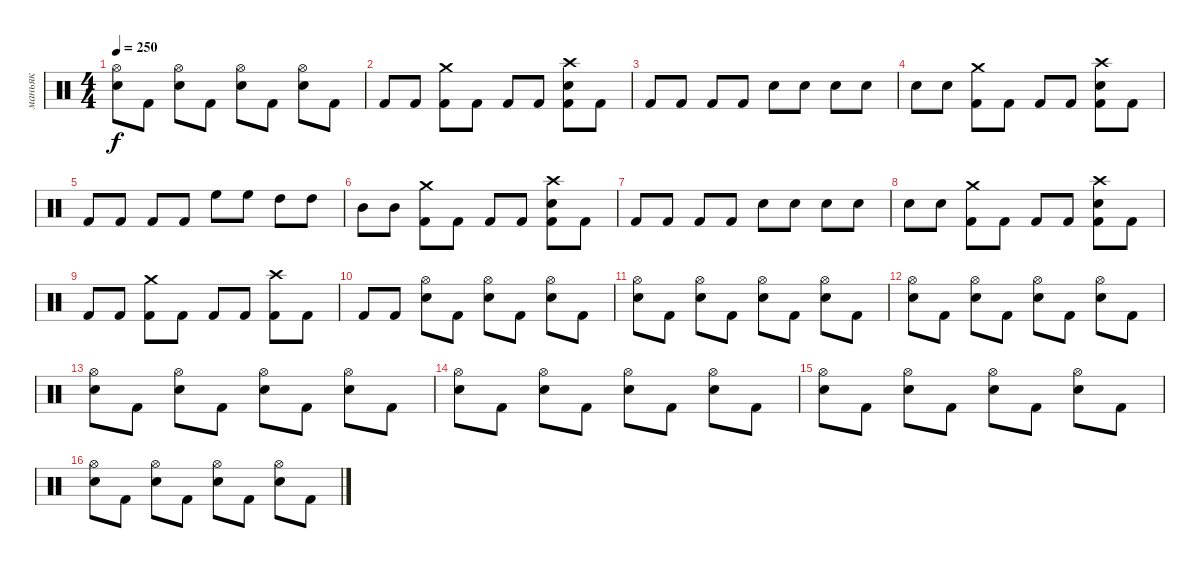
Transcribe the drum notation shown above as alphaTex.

\track ("маньяк" "маньяк") {instrument percussion}
\staff {score}
\articulation defaults
\ts (4 4)
\tempo 250
\clef neutral
\ks c
("Electric Snare (hit)" "Hi-Hat (open)").8{dy f} "Kick (hit) 2".8 ("Electric Snare (hit)" "Hi-Hat (open)").8 "Kick (hit) 2".8 ("Electric Snare (hit)" "Hi-Hat (open)").8 "Kick (hit) 2".8 ("Electric Snare (hit)" "Hi-Hat (open)").8 "Kick (hit) 2".8 |
"Kick (hit) 2".8 "Kick (hit) 2".8 ("Crash medium (hit)" "Kick (hit) 2").8 "Kick (hit) 2".8 "Kick (hit) 2".8 "Kick (hit) 2".8 ("Crash high (hit)" "Electric Snare (hit)" "Kick (hit) 2").8 "Kick (hit) 2".8 |
"Kick (hit) 2".8 "Kick (hit) 2".8 "Kick (hit) 2".8 "Kick (hit) 2".8 "Electric Snare (hit)".8 "Electric Snare (hit)".8 "Electric Snare (hit)".8 "Electric Snare (hit)".8 |
"Electric Snare (hit)".8 "Electric Snare (hit)".8 ("Crash medium (hit)" "Kick (hit) 2").8 "Kick (hit) 2".8 "Kick (hit) 2".8 "Kick (hit) 2".8 ("Crash high (hit)" "Electric Snare (hit)" "Kick (hit) 2").8 "Kick (hit) 2".8 |
"Kick (hit) 2".8 "Kick (hit) 2".8 "Kick (hit) 2".8 "Kick (hit) 2".8 "High Floor Tom (hit)".8 "High Floor Tom (hit)".8 "High Tom (hit)".8 "High Tom (hit)".8 |
"Mid Tom (hit)".8 "Mid Tom (hit)".8 ("Crash medium (hit)" "Kick (hit) 2").8 "Kick (hit) 2".8 "Kick (hit) 2".8 "Kick (hit) 2".8 ("Crash high (hit)" "Electric Snare (hit)" "Kick (hit) 2").8 "Kick (hit) 2".8 |
"Kick (hit) 2".8 "Kick (hit) 2".8 "Kick (hit) 2".8 "Kick (hit) 2".8 "Electric Snare (hit)".8 "Electric Snare (hit)".8 "Electric Snare (hit)".8 "Electric Snare (hit)".8 |
"Electric Snare (hit)".8 "Electric Snare (hit)".8 ("Crash medium (hit)" "Kick (hit) 2").8 "Kick (hit) 2".8 "Kick (hit) 2".8 "Kick (hit) 2".8 ("Crash high (hit)" "Electric Snare (hit)" "Kick (hit) 2").8 "Kick (hit) 2".8 |
"Kick (hit) 2".8 "Kick (hit) 2".8 ("Crash medium (hit)" "Kick (hit) 2").8 "Kick (hit) 2".8 "Kick (hit) 2".8 "Kick (hit) 2".8 ("Crash high (hit)" "Kick (hit) 2").8 "Kick (hit) 2".8 |
"Kick (hit) 2".8 "Kick (hit) 2".8 ("Electric Snare (hit)" "Hi-Hat (open)").8 "Kick (hit) 2".8 ("Electric Snare (hit)" "Hi-Hat (open)").8 "Kick (hit) 2".8 ("Electric Snare (hit)" "Hi-Hat (open)").8 "Kick (hit) 2".8 |
("Electric Snare (hit)" "Hi-Hat (open)").8 "Kick (hit) 2".8 ("Electric Snare (hit)" "Hi-Hat (open)").8 "Kick (hit) 2".8 ("Electric Snare (hit)" "Hi-Hat (open)").8 "Kick (hit) 2".8 ("Electric Snare (hit)" "Hi-Hat (open)").8 "Kick (hit) 2".8 |
("Electric Snare (hit)" "Hi-Hat (open)").8 "Kick (hit) 2".8 ("Electric Snare (hit)" "Hi-Hat (open)").8 "Kick (hit) 2".8 ("Electric Snare (hit)" "Hi-Hat (open)").8 "Kick (hit) 2".8 ("Electric Snare (hit)" "Hi-Hat (open)").8 "Kick (hit) 2".8 |
("Electric Snare (hit)" "Hi-Hat (open)").8 "Kick (hit) 2".8 ("Electric Snare (hit)" "Hi-Hat (open)").8 "Kick (hit) 2".8 ("Electric Snare (hit)" "Hi-Hat (open)").8 "Kick (hit) 2".8 ("Electric Snare (hit)" "Hi-Hat (open)").8 "Kick (hit) 2".8 |
("Electric Snare (hit)" "Hi-Hat (open)").8 "Kick (hit) 2".8 ("Electric Snare (hit)" "Hi-Hat (open)").8 "Kick (hit) 2".8 ("Electric Snare (hit)" "Hi-Hat (open)").8 "Kick (hit) 2".8 ("Electric Snare (hit)" "Hi-Hat (open)").8 "Kick (hit) 2".8 |
("Electric Snare (hit)" "Hi-Hat (open)").8 "Kick (hit) 2".8 ("Electric Snare (hit)" "Hi-Hat (open)").8 "Kick (hit) 2".8 ("Electric Snare (hit)" "Hi-Hat (open)").8 "Kick (hit) 2".8 ("Electric Snare (hit)" "Hi-Hat (open)").8 "Kick (hit) 2".8 |
("Electric Snare (hit)" "Hi-Hat (open)").8 "Kick (hit) 2".8 ("Electric Snare (hit)" "Hi-Hat (open)").8 "Kick (hit) 2".8 ("Electric Snare (hit)" "Hi-Hat (open)").8 "Kick (hit) 2".8 ("Electric Snare (hit)" "Hi-Hat (open)").8 "Kick (hit) 2".8
